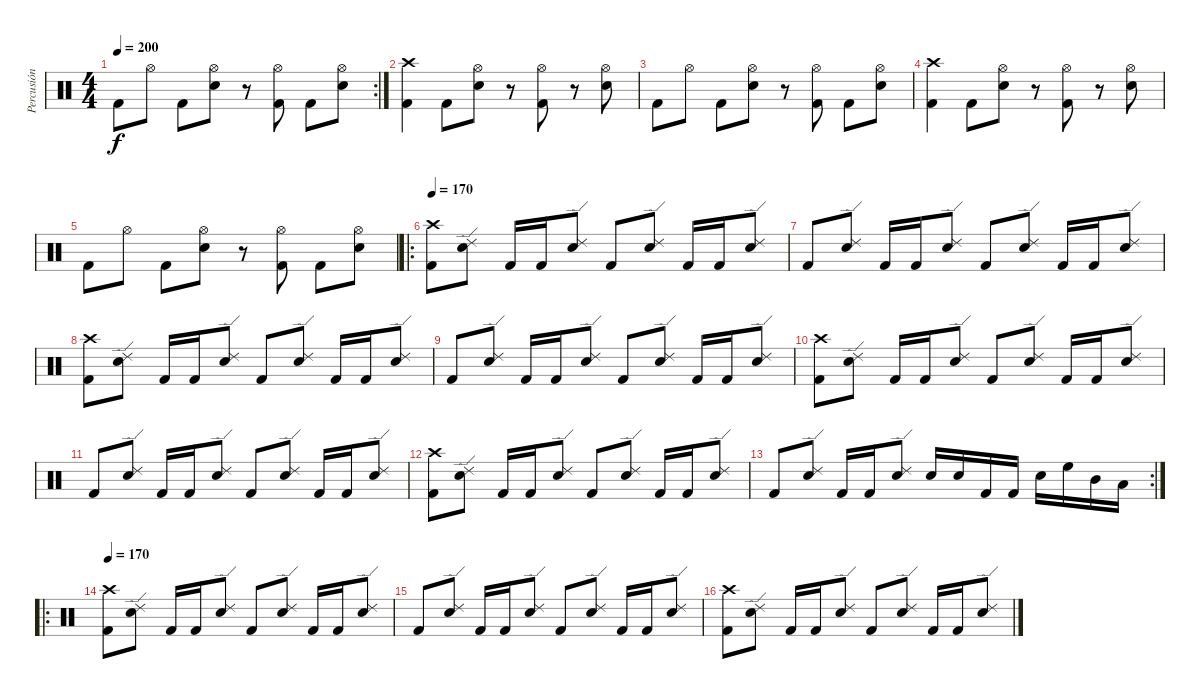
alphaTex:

\track ("Percusión" "Percusión") {instrument percussion}
\staff {score}
\articulation defaults
\rc 2
\ts (4 4)
\tempo 200
\clef neutral
\ks c "Kick (hit) 2".8{dy f} "Hi-Hat (open)".8 "Kick (hit) 2".8
("Hi-Hat (open)" "Electric Snare (hit)").8 r.8 ("Hi-Hat (open)" "Kick (hit) 2").8 "Kick (hit) 2".8 ("Hi-Hat (open)" "Electric Snare (hit)").8 |
("Crash high (hit)" "Kick (hit) 2").4 "Kick (hit) 2".8 ("Hi-Hat (open)" "Electric Snare (hit)").8 r.8 ("Hi-Hat (open)" "Kick (hit) 2").8 r.8 ("Hi-Hat (open)" "Electric Snare (hit)").8 |
"Kick (hit) 2".8 "Hi-Hat (open)".8 "Kick (hit) 2".8 ("Hi-Hat (open)" "Electric Snare (hit)").8 r.8 ("Hi-Hat (open)" "Kick (hit) 2").8 "Kick (hit) 2".8 ("Hi-Hat (open)" "Electric Snare (hit)").8 |
("Crash high (hit)" "Kick (hit) 2").4 "Kick (hit) 2".8 ("Hi-Hat (open)" "Electric Snare (hit)").8 r.8 ("Hi-Hat (open)" "Kick (hit) 2").8 r.8 ("Hi-Hat (open)" "Electric Snare (hit)").8 |
"Kick (hit) 2".8 "Hi-Hat (open)".8 "Kick (hit) 2".8 ("Hi-Hat (open)" "Electric Snare (hit)").8 r.8 ("Hi-Hat (open)" "Kick (hit) 2").8 "Kick (hit) 2".8 ("Hi-Hat (open)" "Electric Snare (hit)").8 |
\ro
\tempo 170
("Crash high (hit)" "Kick (hit) 2").8 ("Ride (edge) 2" "Electric Snare (hit)").8 "Kick (hit) 2".16 "Kick (hit) 2".16 ("Ride (edge) 2" "Electric Snare (hit)").8 "Kick (hit) 2".8 ("Ride (edge) 2" "Electric Snare (hit)").8 "Kick (hit) 2".16 "Kick (hit) 2".16 ("Ride (edge) 2" "Electric Snare (hit)").8 |
"Kick (hit) 2".8 ("Ride (edge) 2" "Electric Snare (hit)").8 "Kick (hit) 2".16 "Kick (hit) 2".16 ("Ride (edge) 2" "Electric Snare (hit)").8 "Kick (hit) 2".8 ("Ride (edge) 2" "Electric Snare (hit)").8 "Kick (hit) 2".16 "Kick (hit) 2".16 ("Ride (edge) 2" "Electric Snare (hit)").8 |
("Crash high (hit)" "Kick (hit) 2").8 ("Ride (edge) 2" "Electric Snare (hit)").8 "Kick (hit) 2".16 "Kick (hit) 2".16 ("Ride (edge) 2" "Electric Snare (hit)").8 "Kick (hit) 2".8 ("Ride (edge) 2" "Electric Snare (hit)").8 "Kick (hit) 2".16 "Kick (hit) 2".16 ("Ride (edge) 2" "Electric Snare (hit)").8 |
"Kick (hit) 2".8 ("Ride (edge) 2" "Electric Snare (hit)").8 "Kick (hit) 2".16 "Kick (hit) 2".16 ("Ride (edge) 2" "Electric Snare (hit)").8 "Kick (hit) 2".8 ("Ride (edge) 2" "Electric Snare (hit)").8 "Kick (hit) 2".16 "Kick (hit) 2".16 ("Ride (edge) 2" "Electric Snare (hit)").8 |
("Crash high (hit)" "Kick (hit) 2").8 ("Ride (edge) 2" "Electric Snare (hit)").8 "Kick (hit) 2".16 "Kick (hit) 2".16 ("Ride (edge) 2" "Electric Snare (hit)").8 "Kick (hit) 2".8 ("Ride (edge) 2" "Electric Snare (hit)").8 "Kick (hit) 2".16 "Kick (hit) 2".16 ("Ride (edge) 2" "Electric Snare (hit)").8 |
"Kick (hit) 2".8 ("Ride (edge) 2" "Electric Snare (hit)").8 "Kick (hit) 2".16 "Kick (hit) 2".16 ("Ride (edge) 2" "Electric Snare (hit)").8 "Kick (hit) 2".8 ("Ride (edge) 2" "Electric Snare (hit)").8 "Kick (hit) 2".16 "Kick (hit) 2".16 ("Ride (edge) 2" "Electric Snare (hit)").8 |
("Crash high (hit)" "Kick (hit) 2").8 ("Ride (edge) 2" "Electric Snare (hit)").8 "Kick (hit) 2".16 "Kick (hit) 2".16 ("Ride (edge) 2" "Electric Snare (hit)").8 "Kick (hit) 2".8 ("Ride (edge) 2" "Electric Snare (hit)").8 "Kick (hit) 2".16 "Kick (hit) 2".16 ("Ride (edge) 2" "Electric Snare (hit)").8 |
\rc 2 "Kick (hit) 2".8
("Ride (edge) 2" "Electric Snare (hit)").8 "Kick (hit) 2".16 "Kick (hit) 2".16 ("Ride (edge) 2" "Electric Snare (hit)").8 "Electric Snare (hit)".16 "Electric Snare (hit)".16 "Kick (hit) 2".16 "Kick (hit) 2".16 "Electric Snare (hit)".16 "High Floor Tom (hit)".16 "Mid Tom (hit)".16 "Low Tom (hit)".16 |
\ro
\tempo 170
("Crash high (hit)" "Kick (hit) 2").8 ("Ride (edge) 2" "Electric Snare (hit)").8 "Kick (hit) 2".16 "Kick (hit) 2".16 ("Ride (edge) 2" "Electric Snare (hit)").8 "Kick (hit) 2".8 ("Ride (edge) 2" "Electric Snare (hit)").8 "Kick (hit) 2".16 "Kick (hit) 2".16 ("Ride (edge) 2" "Electric Snare (hit)").8 |
"Kick (hit) 2".8 ("Ride (edge) 2" "Electric Snare (hit)").8 "Kick (hit) 2".16 "Kick (hit) 2".16 ("Ride (edge) 2" "Electric Snare (hit)").8 "Kick (hit) 2".8 ("Ride (edge) 2" "Electric Snare (hit)").8 "Kick (hit) 2".16 "Kick (hit) 2".16 ("Ride (edge) 2" "Electric Snare (hit)").8 |
("Crash high (hit)" "Kick (hit) 2").8 ("Ride (edge) 2" "Electric Snare (hit)").8 "Kick (hit) 2".16 "Kick (hit) 2".16 ("Ride (edge) 2" "Electric Snare (hit)").8 "Kick (hit) 2".8 ("Ride (edge) 2" "Electric Snare (hit)").8 "Kick (hit) 2".16 "Kick (hit) 2".16 ("Ride (edge) 2" "Electric Snare (hit)").8
